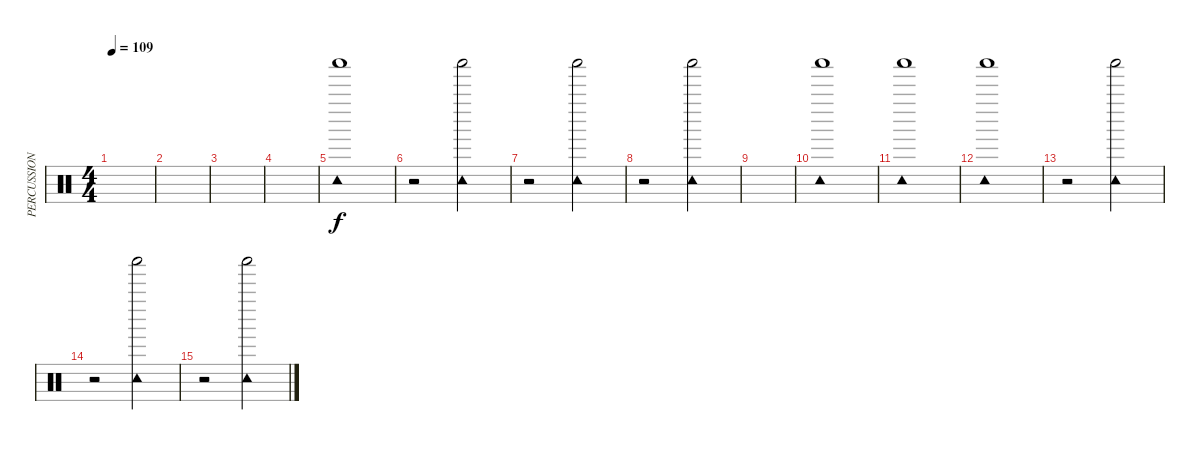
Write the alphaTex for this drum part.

\track ("PERCUSSION" "PERCUSSION") {instrument percussion}
\staff {score}
\articulation defaults
\ts (4 4)
\tempo 109
\clef neutral
\ks c
|
|
|
|
("Tambourine (hit)" "Shaker (hit)").1 |
r.2 ("Tambourine (hit)" "Shaker (hit)").2 |
r.2 ("Tambourine (hit)" "Shaker (hit)").2 |
r.2 ("Tambourine (hit)" "Shaker (hit)").2 |
|
("Tambourine (hit)" "Shaker (hit)").1 |
("Tambourine (hit)" "Shaker (hit)").1 |
("Tambourine (hit)" "Shaker (hit)").1 |
r.2 ("Tambourine (hit)" "Shaker (hit)").2 |
r.2 ("Tambourine (hit)" "Shaker (hit)").2 |
r.2 ("Tambourine (hit)" "Shaker (hit)").2
